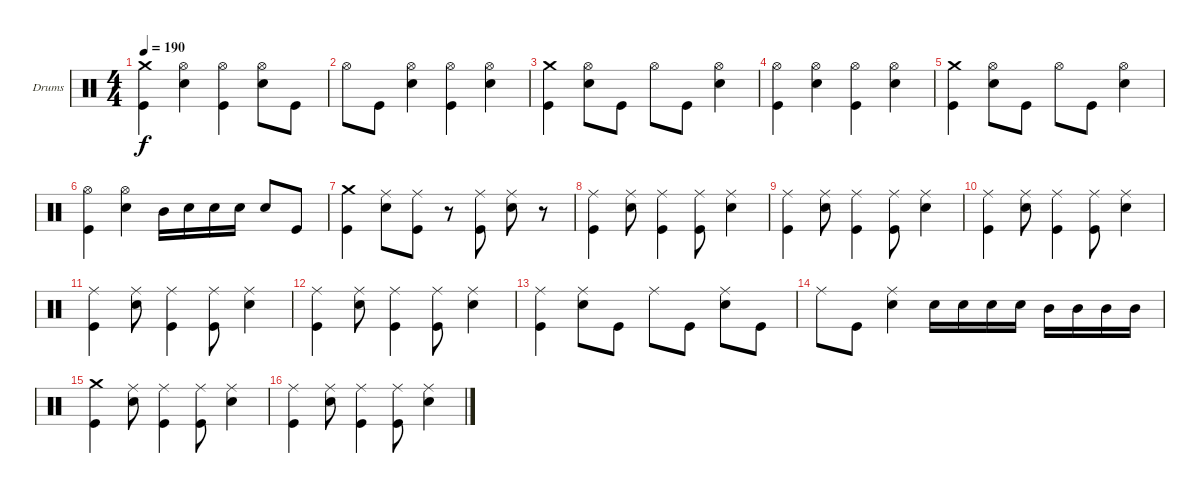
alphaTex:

\bracketExtendMode groupsimilarinstruments
\firstSystemTrackNameOrientation horizontal
\otherSystemsTrackNameOrientation horizontal
\track ("Drumkit" "Drums") {instrument percussion}
\staff {score}
\articulation defaults
\ts (4 4)
\tempo 190
\clef neutral
\ks c
("Crash medium (hit)" "Kick (hit)").4{dy f} ("Snare (hit) 2" "Hi-Hat (open)").4 ("Hi-Hat (open)" "Kick (hit)").4 ("Hi-Hat (open)" "Snare (hit) 2").8 "Kick (hit)".8 |
"Hi-Hat (open)".8 "Kick (hit)".8 ("Hi-Hat (open)" "Snare (hit) 2").4 ("Hi-Hat (open)" "Kick (hit)").4 ("Hi-Hat (open)" "Snare (hit) 2").4 |
("Crash medium (hit)" "Kick (hit)").4 ("Snare (hit) 2" "Hi-Hat (open)").8 "Kick (hit)".8 "Hi-Hat (open)".8 "Kick (hit)".8 ("Hi-Hat (open)" "Snare (hit) 2").4 |
("Kick (hit)" "Hi-Hat (open)").4 ("Hi-Hat (open)" "Snare (hit) 2").4 ("Hi-Hat (open)" "Kick (hit)").4 ("Hi-Hat (open)" "Snare (hit) 2").4 |
("Crash medium (hit)" "Kick (hit)").4 ("Snare (hit) 2" "Hi-Hat (open)").8 "Kick (hit)".8 "Hi-Hat (open)".8 "Kick (hit)".8 ("Hi-Hat (open)" "Snare (hit) 2").4 |
("Kick (hit)" "Hi-Hat (open)").4 ("Hi-Hat (open)" "Snare (hit) 2").4 "Mid Tom (hit)".16 "Snare (hit) 2".16 "Snare (hit) 2".16 "Snare (hit) 2".16 "Snare (hit) 2".8 "Kick (hit)".8 |
("Crash medium (hit)" "Kick (hit)").4 ("Snare (hit) 2" "Ride (middle)").8 ("Kick (hit)" "Ride (middle)").8 r.8 ("Kick (hit)" "Ride (middle)").8 ("Snare (hit) 2" "Ride (middle)").8 r.8 |
("Kick (hit)" "Ride (middle)").4 ("Snare (hit) 2" "Ride (middle)").8 ("Kick (hit)" "Ride (middle)").4 ("Kick (hit)" "Ride (middle)").8 ("Snare (hit) 2" "Ride (middle)").4 |
("Kick (hit)" "Ride (middle)").4 ("Snare (hit) 2" "Ride (middle)").8 ("Kick (hit)" "Ride (middle)").4 ("Kick (hit)" "Ride (middle)").8 ("Snare (hit) 2" "Ride (middle)").4 |
("Kick (hit)" "Ride (middle)").4 ("Snare (hit) 2" "Ride (middle)").8 ("Kick (hit)" "Ride (middle)").4 ("Kick (hit)" "Ride (middle)").8 ("Snare (hit) 2" "Ride (middle)").4 |
("Kick (hit)" "Ride (middle)").4 ("Snare (hit) 2" "Ride (middle)").8 ("Kick (hit)" "Ride (middle)").4 ("Kick (hit)" "Ride (middle)").8 ("Snare (hit) 2" "Ride (middle)").4 |
("Kick (hit)" "Ride (middle)").4 ("Snare (hit) 2" "Ride (middle)").8 ("Kick (hit)" "Ride (middle)").4 ("Kick (hit)" "Ride (middle)").8 ("Snare (hit) 2" "Ride (middle)").4 |
("Kick (hit)" "Ride (middle)").4 ("Snare (hit) 2" "Ride (middle)").8 "Kick (hit)".8 "Ride (middle)".8 "Kick (hit)".8 ("Snare (hit) 2" "Ride (middle)").8 "Kick (hit)".8 |
"Ride (middle)".8 "Kick (hit)".8 ("Snare (hit) 2" "Ride (middle)").4 "Snare (hit) 2".16 "Snare (hit) 2".16 "Snare (hit) 2".16 "Snare (hit) 2".16 "Mid Tom (hit)".16 "Mid Tom (hit)".16 "Mid Tom (hit)".16 "Mid Tom (hit)".16 |
("Kick (hit)" "Crash medium (hit)").4 ("Snare (hit) 2" "Ride (middle)").8 ("Kick (hit)" "Ride (middle)").4 ("Kick (hit)" "Ride (middle)").8 ("Snare (hit) 2" "Ride (middle)").4 |
("Kick (hit)" "Ride (middle)").4 ("Snare (hit) 2" "Ride (middle)").8 ("Kick (hit)" "Ride (middle)").4 ("Kick (hit)" "Ride (middle)").8 ("Snare (hit) 2" "Ride (middle)").4
